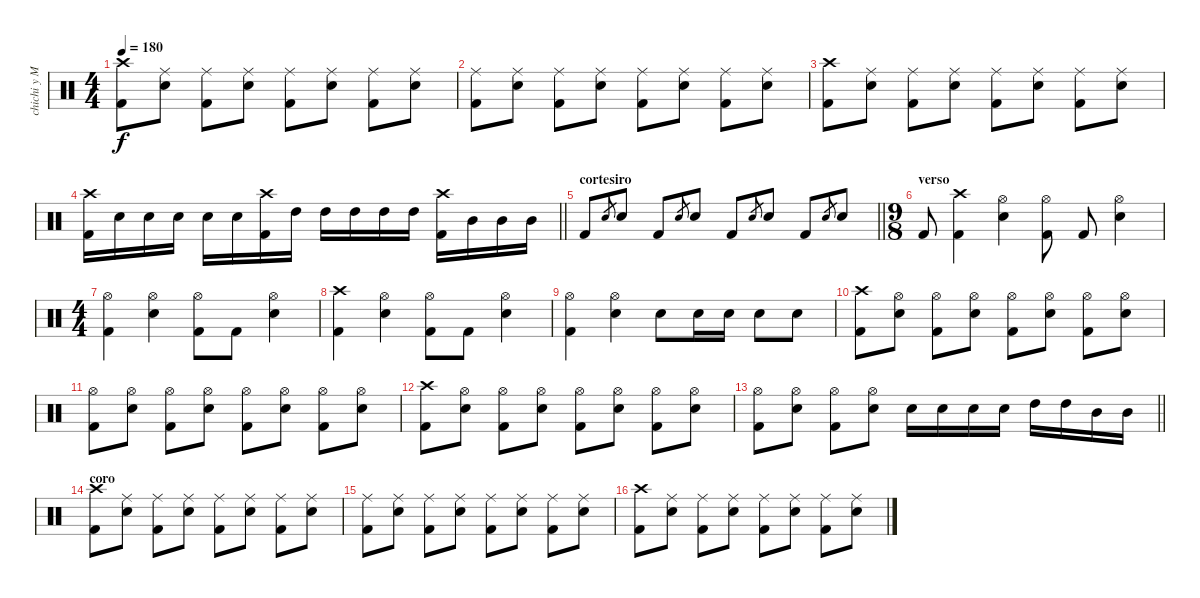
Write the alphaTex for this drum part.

\track ("chichi y MAlejo" "chichi y M") {instrument percussion}
\staff {score}
\articulation defaults
\ts (4 4)
\tempo 180
\clef neutral
\ks c
("Crash high (hit)" "Kick (hit) 2").8{dy f} ("Ride (middle)" "Snare (hit) 2").8 ("Ride (middle)" "Kick (hit) 2").8 ("Ride (middle)" "Snare (hit) 2").8 ("Ride (middle)" "Kick (hit) 2").8 ("Ride (middle)" "Snare (hit) 2").8 ("Ride (middle)" "Kick (hit) 2").8 ("Ride (middle)" "Snare (hit) 2").8 |
("Ride (middle)" "Kick (hit) 2").8 ("Ride (middle)" "Snare (hit) 2").8 ("Ride (middle)" "Kick (hit) 2").8 ("Ride (middle)" "Snare (hit) 2").8 ("Ride (middle)" "Kick (hit) 2").8 ("Ride (middle)" "Snare (hit) 2").8 ("Ride (middle)" "Kick (hit) 2").8 ("Ride (middle)" "Snare (hit) 2").8 |
("Crash high (hit)" "Kick (hit) 2").8 ("Ride (middle)" "Snare (hit) 2").8 ("Ride (middle)" "Kick (hit) 2").8 ("Ride (middle)" "Snare (hit) 2").8 ("Ride (middle)" "Kick (hit) 2").8 ("Ride (middle)" "Snare (hit) 2").8 ("Ride (middle)" "Kick (hit) 2").8 ("Ride (middle)" "Snare (hit) 2").8 |
\barLineRight lightlight
("Crash high (hit)" "Kick (hit) 2").16 "Snare (hit) 2".16 "Snare (hit) 2".16 "Snare (hit) 2".16 "Snare (hit) 2".16 "Snare (hit) 2".16 ("Crash high (hit)" "Kick (hit) 2").16 "High Tom (hit)".16 "High Tom (hit)".16 "High Tom (hit)".16 "High Tom (hit)".16 "High Tom (hit)".16 ("Crash high (hit)" "Kick (hit) 2").16 "Mid Tom (hit)".16 "Mid Tom (hit)".16 "Mid Tom (hit)".16 |
\section ("" "cortesiro")
\barLineRight lightlight "Kick (hit) 2".8 "Snare (hit) 2".8{gr} "Snare (hit) 2".8 "Kick (hit) 2".8 "Snare (hit) 2".8{gr} "Snare (hit) 2".8 "Kick (hit) 2".8 "Snare (hit) 2".8{gr} "Snare (hit) 2".8 "Kick (hit) 2".8 "Snare (hit) 2".8{gr} "Snare (hit) 2".8
|
\ts (9 8)
\section ("" "verso")
"Kick (hit) 2".8 ("Crash high (hit)" "Kick (hit) 2").4 ("Hi-Hat (open)" "Snare (hit) 2").4 ("Hi-Hat (open)" "Kick (hit) 2").8 "Kick (hit) 2".8 ("Hi-Hat (open)" "Snare (hit) 2").4 |
\ts (4 4)
("Hi-Hat (open)" "Kick (hit) 2").4 ("Hi-Hat (open)" "Snare (hit) 2").4 ("Hi-Hat (open)" "Kick (hit) 2").8 "Kick (hit) 2".8 ("Hi-Hat (open)" "Snare (hit) 2").4 |
("Crash high (hit)" "Kick (hit) 2").4 ("Hi-Hat (open)" "Snare (hit) 2").4 ("Hi-Hat (open)" "Kick (hit) 2").8 "Kick (hit) 2".8 ("Hi-Hat (open)" "Snare (hit) 2").4 |
("Hi-Hat (open)" "Kick (hit) 2").4 ("Hi-Hat (open)" "Snare (hit) 2").4 "Snare (hit) 2".8 "Snare (hit) 2".16 "Snare (hit) 2".16 "Snare (hit) 2".8 "Snare (hit) 2".8 |
("Crash high (hit)" "Kick (hit) 2").8 ("Hi-Hat (open)" "Snare (hit) 2").8 ("Hi-Hat (open)" "Kick (hit) 2").8 ("Hi-Hat (open)" "Snare (hit) 2").8 ("Hi-Hat (open)" "Kick (hit) 2").8 ("Hi-Hat (open)" "Snare (hit) 2").8 ("Hi-Hat (open)" "Kick (hit) 2").8 ("Hi-Hat (open)" "Snare (hit) 2").8 |
("Hi-Hat (open)" "Kick (hit) 2").8 ("Hi-Hat (open)" "Snare (hit) 2").8 ("Hi-Hat (open)" "Kick (hit) 2").8 ("Hi-Hat (open)" "Snare (hit) 2").8 ("Hi-Hat (open)" "Kick (hit) 2").8 ("Hi-Hat (open)" "Snare (hit) 2").8 ("Hi-Hat (open)" "Kick (hit) 2").8 ("Hi-Hat (open)" "Snare (hit) 2").8 |
("Crash high (hit)" "Kick (hit) 2").8 ("Hi-Hat (open)" "Snare (hit) 2").8 ("Hi-Hat (open)" "Kick (hit) 2").8 ("Hi-Hat (open)" "Snare (hit) 2").8 ("Hi-Hat (open)" "Kick (hit) 2").8 ("Hi-Hat (open)" "Snare (hit) 2").8 ("Hi-Hat (open)" "Kick (hit) 2").8 ("Hi-Hat (open)" "Snare (hit) 2").8 |
\barLineRight lightlight
("Hi-Hat (open)" "Kick (hit) 2").8 ("Hi-Hat (open)" "Snare (hit) 2").8 ("Hi-Hat (open)" "Kick (hit) 2").8 ("Hi-Hat (open)" "Snare (hit) 2").8 "Snare (hit) 2".16 "Snare (hit) 2".16 "Snare (hit) 2".16 "Snare (hit) 2".16 "High Tom (hit)".16 "High Tom (hit)".16 "Mid Tom (hit)".16 "Mid Tom (hit)".16 |
\section ("" "coro")
("Crash high (hit)" "Kick (hit) 2").8 ("Ride (middle)" "Snare (hit) 2").8 ("Ride (middle)" "Kick (hit) 2").8 ("Ride (middle)" "Snare (hit) 2").8 ("Ride (middle)" "Kick (hit) 2").8 ("Ride (middle)" "Snare (hit) 2").8 ("Ride (middle)" "Kick (hit) 2").8 ("Ride (middle)" "Snare (hit) 2").8 |
("Ride (middle)" "Kick (hit) 2").8 ("Ride (middle)" "Snare (hit) 2").8 ("Ride (middle)" "Kick (hit) 2").8 ("Ride (middle)" "Snare (hit) 2").8 ("Ride (middle)" "Kick (hit) 2").8 ("Ride (middle)" "Snare (hit) 2").8 ("Ride (middle)" "Kick (hit) 2").8 ("Ride (middle)" "Snare (hit) 2").8 |
("Crash high (hit)" "Kick (hit) 2").8 ("Ride (middle)" "Snare (hit) 2").8 ("Ride (middle)" "Kick (hit) 2").8 ("Ride (middle)" "Snare (hit) 2").8 ("Ride (middle)" "Kick (hit) 2").8 ("Ride (middle)" "Snare (hit) 2").8 ("Ride (middle)" "Kick (hit) 2").8 ("Ride (middle)" "Snare (hit) 2").8
